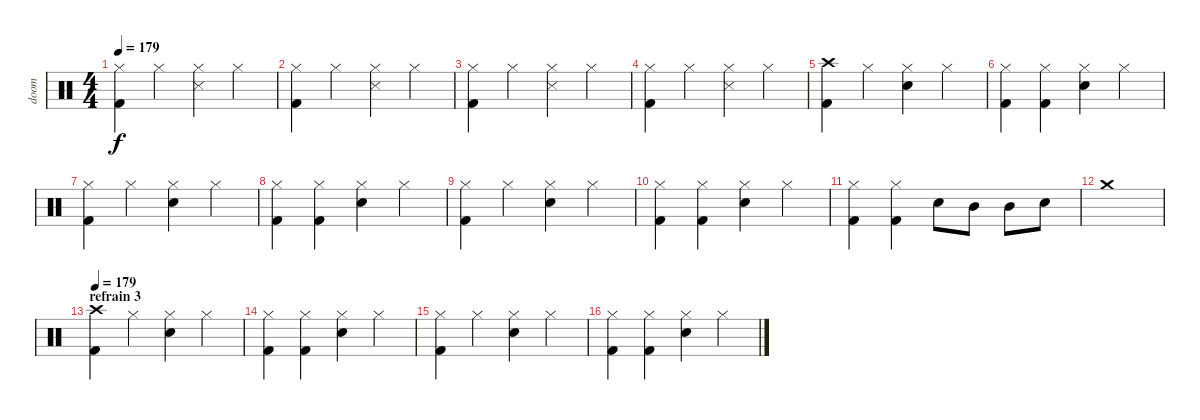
\track ("doom" "doom") {instrument percussion}
\staff {score}
\articulation defaults
\ts (4 4)
\tempo 179
\clef neutral
\ks c
("Hi-Hat (closed)" "Kick (hit) 2").4{dy f} "Hi-Hat (closed)".4 ("Hi-Hat (closed)" "Snare (side stick) 3").4 "Hi-Hat (closed)".4 |
("Hi-Hat (closed)" "Kick (hit) 2").4 "Hi-Hat (closed)".4 ("Hi-Hat (closed)" "Snare (side stick) 3").4 "Hi-Hat (closed)".4 |
("Hi-Hat (closed)" "Kick (hit) 2").4 "Hi-Hat (closed)".4 ("Hi-Hat (closed)" "Snare (side stick) 3").4 "Hi-Hat (closed)".4 |
("Hi-Hat (closed)" "Kick (hit) 2").4 "Hi-Hat (closed)".4 ("Hi-Hat (closed)" "Snare (side stick) 3").4 "Hi-Hat (closed)".4 |
("Crash high (hit)" "Kick (hit) 2").4 "Hi-Hat (closed)".4 ("Hi-Hat (closed)" "Electric Snare (hit)").4 "Hi-Hat (closed)".4 |
("Hi-Hat (closed)" "Kick (hit) 2").4 ("Hi-Hat (closed)" "Kick (hit) 2").4 ("Hi-Hat (closed)" "Electric Snare (hit)").4 "Hi-Hat (closed)".4 |
("Hi-Hat (closed)" "Kick (hit) 2").4 "Hi-Hat (closed)".4 ("Hi-Hat (closed)" "Electric Snare (hit)").4 "Hi-Hat (closed)".4 |
("Hi-Hat (closed)" "Kick (hit) 2").4 ("Hi-Hat (closed)" "Kick (hit) 2").4 ("Hi-Hat (closed)" "Electric Snare (hit)").4 "Hi-Hat (closed)".4 |
("Hi-Hat (closed)" "Kick (hit) 2").4 "Hi-Hat (closed)".4 ("Hi-Hat (closed)" "Electric Snare (hit)").4 "Hi-Hat (closed)".4 |
("Hi-Hat (closed)" "Kick (hit) 2").4 ("Hi-Hat (closed)" "Kick (hit) 2").4 ("Hi-Hat (closed)" "Electric Snare (hit)").4 "Hi-Hat (closed)".4 |
("Hi-Hat (closed)" "Kick (hit) 2").4 ("Hi-Hat (closed)" "Kick (hit) 2").4 "Snare (hit) 2".8 "Mid Tom (hit)".8 "Mid Tom (hit)".8 "Snare (hit) 2".8 |
"Crash medium (hit)".1 |
\section ("" "refrain 3")
\tempo 179
("Crash high (hit)" "Kick (hit) 2").4 "Hi-Hat (closed)".4 ("Hi-Hat (closed)" "Snare (hit) 2").4 "Hi-Hat (closed)".4 |
("Hi-Hat (closed)" "Kick (hit) 2").4 ("Hi-Hat (closed)" "Kick (hit) 2").4 ("Hi-Hat (closed)" "Snare (hit) 2").4 "Hi-Hat (closed)".4 |
("Hi-Hat (closed)" "Kick (hit) 2").4 "Hi-Hat (closed)".4 ("Hi-Hat (closed)" "Snare (hit) 2").4 "Hi-Hat (closed)".4 |
("Hi-Hat (closed)" "Kick (hit) 2").4 ("Hi-Hat (closed)" "Kick (hit) 2").4 ("Hi-Hat (closed)" "Snare (hit) 2").4 "Hi-Hat (closed)".4
